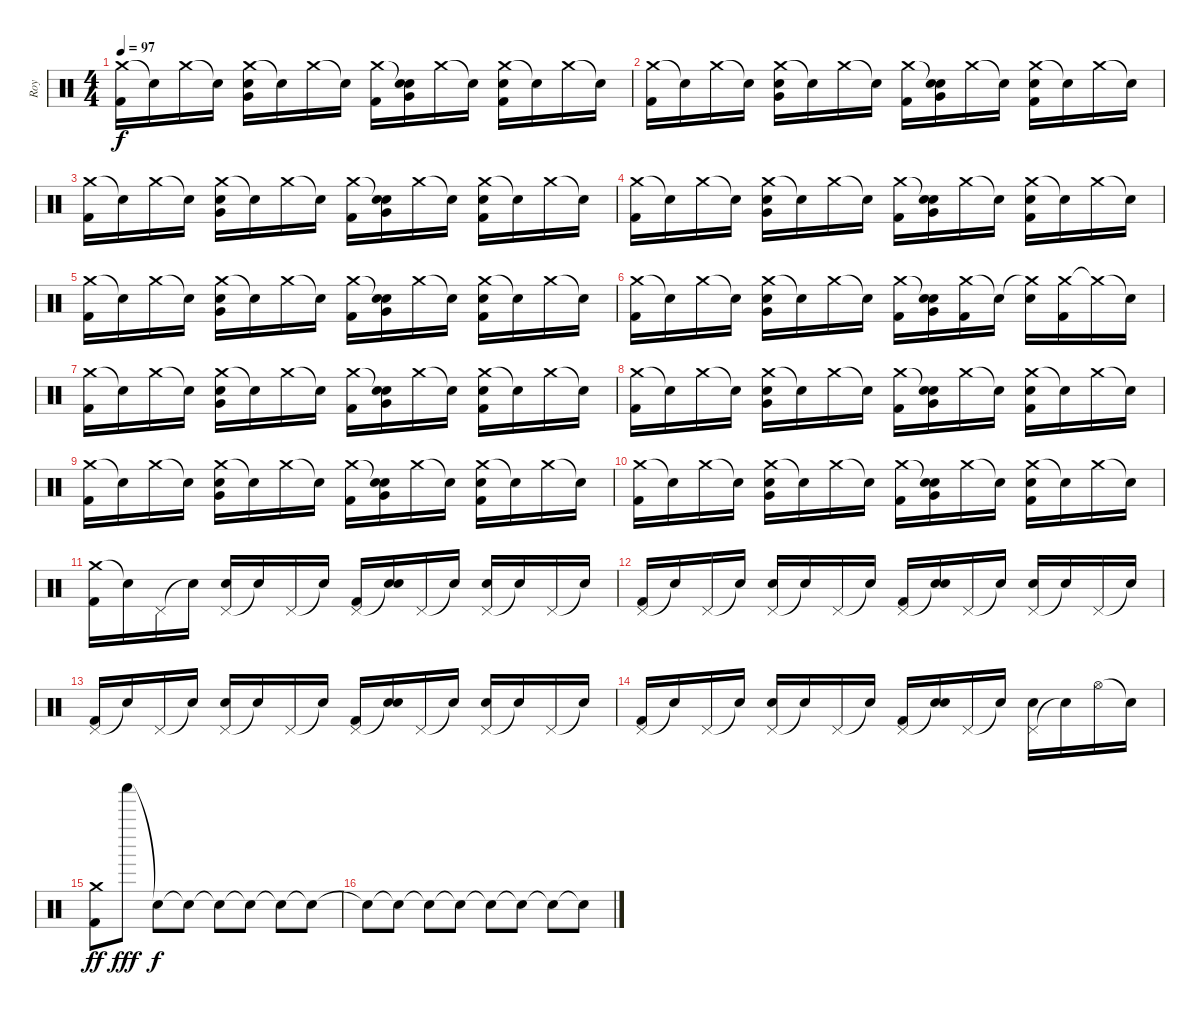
\track ("Roy" "Roy") {instrument percussion}
\staff {score}
\articulation defaults
\ts (4 4)
\tempo 97
\clef neutral
\ks c
("Crash medium (hit)" "Kick (hit) 2").16{dy f} "Snare (hit)"{t}.16 "Crash medium (hit)".16 "Snare (hit)"{t}.16 ("Crash medium (hit)" "Electric Snare (hit)" "Very Low Tom (hit)").16 "Snare (hit)"{t}.16 "Crash medium (hit)".16 "Snare (hit)"{t}.16 ("Crash medium (hit)" "Kick (hit) 2").16 ("Snare (hit)"{t} "Electric Snare (hit)" "Very Low Tom (hit)").16 "Crash medium (hit)".16 "Snare (hit)"{t}.16 ("Crash medium (hit)" "Electric Snare (hit)" "Kick (hit) 2").16 "Snare (hit)"{t}.16 "Crash medium (hit)".16 "Snare (hit)"{t}.16 |
("Crash medium (hit)" "Kick (hit) 2").16 "Snare (hit)"{t}.16 "Crash medium (hit)".16 "Snare (hit)"{t}.16 ("Crash medium (hit)" "Electric Snare (hit)" "Very Low Tom (hit)").16 "Snare (hit)"{t}.16 "Crash medium (hit)".16 "Snare (hit)"{t}.16 ("Crash medium (hit)" "Kick (hit) 2").16 ("Snare (hit)"{t} "Electric Snare (hit)" "Very Low Tom (hit)").16 "Crash medium (hit)".16 "Snare (hit)"{t}.16 ("Crash medium (hit)" "Electric Snare (hit)" "Kick (hit) 2").16 "Snare (hit)"{t}.16 "Crash medium (hit)".16 "Snare (hit)"{t}.16 |
("Crash medium (hit)" "Kick (hit) 2").16 "Snare (hit)"{t}.16 "Crash medium (hit)".16 "Snare (hit)"{t}.16 ("Crash medium (hit)" "Electric Snare (hit)" "Very Low Tom (hit)").16 "Snare (hit)"{t}.16 "Crash medium (hit)".16 "Snare (hit)"{t}.16 ("Crash medium (hit)" "Kick (hit) 2").16 ("Snare (hit)"{t} "Electric Snare (hit)" "Very Low Tom (hit)").16 "Crash medium (hit)".16 "Snare (hit)"{t}.16 ("Crash medium (hit)" "Electric Snare (hit)" "Kick (hit) 2").16 "Snare (hit)"{t}.16 "Crash medium (hit)".16 "Snare (hit)"{t}.16 |
("Crash medium (hit)" "Kick (hit) 2").16 "Snare (hit)"{t}.16 "Crash medium (hit)".16 "Snare (hit)"{t}.16 ("Crash medium (hit)" "Electric Snare (hit)" "Very Low Tom (hit)").16 "Snare (hit)"{t}.16 "Crash medium (hit)".16 "Snare (hit)"{t}.16 ("Crash medium (hit)" "Kick (hit) 2").16 ("Snare (hit)"{t} "Electric Snare (hit)" "Very Low Tom (hit)").16 "Crash medium (hit)".16 "Snare (hit)"{t}.16 ("Crash medium (hit)" "Electric Snare (hit)" "Kick (hit) 2").16 "Snare (hit)"{t}.16 "Crash medium (hit)".16 "Snare (hit)"{t}.16 |
("Crash medium (hit)" "Kick (hit) 2").16 "Snare (hit)"{t}.16 "Crash medium (hit)".16 "Snare (hit)"{t}.16 ("Crash medium (hit)" "Electric Snare (hit)" "Very Low Tom (hit)").16 "Snare (hit)"{t}.16 "Crash medium (hit)".16 "Snare (hit)"{t}.16 ("Crash medium (hit)" "Kick (hit) 2").16 ("Snare (hit)"{t} "Electric Snare (hit)" "Very Low Tom (hit)").16 "Crash medium (hit)".16 "Snare (hit)"{t}.16 ("Crash medium (hit)" "Electric Snare (hit)" "Kick (hit) 2").16 "Snare (hit)"{t}.16 "Crash medium (hit)".16 "Snare (hit)"{t}.16 |
("Crash medium (hit)" "Kick (hit) 2").16 "Snare (hit)"{t}.16 "Crash medium (hit)".16 "Snare (hit)"{t}.16 ("Crash medium (hit)" "Electric Snare (hit)" "Very Low Tom (hit)").16 "Snare (hit)"{t}.16 "Crash medium (hit)".16 "Snare (hit)"{t}.16 ("Crash medium (hit)" "Kick (hit) 2").16 ("Snare (hit)"{t} "Electric Snare (hit)" "Very Low Tom (hit)").16 ("Crash medium (hit)" "Kick (hit) 2").16 "Snare (hit)"{t}.16 ("Crash medium (hit)"{t} "Electric Snare (hit)").16 ("Crash medium (hit)" "Kick (hit) 2").16 "Crash medium (hit)"{t}.16 "Snare (hit)"{t}.16 |
("Crash medium (hit)" "Kick (hit) 2").16 "Snare (hit)"{t}.16 "Crash medium (hit)".16 "Snare (hit)"{t}.16 ("Crash medium (hit)" "Electric Snare (hit)" "Very Low Tom (hit)").16 "Snare (hit)"{t}.16 "Crash medium (hit)".16 "Snare (hit)"{t}.16 ("Crash medium (hit)" "Kick (hit) 2").16 ("Snare (hit)"{t} "Electric Snare (hit)" "Very Low Tom (hit)").16 "Crash medium (hit)".16 "Snare (hit)"{t}.16 ("Crash medium (hit)" "Electric Snare (hit)" "Kick (hit) 2").16 "Snare (hit)"{t}.16 "Crash medium (hit)".16 "Snare (hit)"{t}.16 |
("Crash medium (hit)" "Kick (hit) 2").16 "Snare (hit)"{t}.16 "Crash medium (hit)".16 "Snare (hit)"{t}.16 ("Crash medium (hit)" "Electric Snare (hit)" "Very Low Tom (hit)").16 "Snare (hit)"{t}.16 "Crash medium (hit)".16 "Snare (hit)"{t}.16 ("Crash medium (hit)" "Kick (hit) 2").16 ("Snare (hit)"{t} "Electric Snare (hit)" "Very Low Tom (hit)").16 "Crash medium (hit)".16 "Snare (hit)"{t}.16 ("Crash medium (hit)" "Electric Snare (hit)" "Kick (hit) 2").16 "Snare (hit)"{t}.16 "Crash medium (hit)".16 "Snare (hit)"{t}.16 |
("Crash medium (hit)" "Kick (hit) 2").16 "Snare (hit)"{t}.16 "Crash medium (hit)".16 "Snare (hit)"{t}.16 ("Crash medium (hit)" "Electric Snare (hit)" "Very Low Tom (hit)").16 "Snare (hit)"{t}.16 "Crash medium (hit)".16 "Snare (hit)"{t}.16 ("Crash medium (hit)" "Kick (hit) 2").16 ("Snare (hit)"{t} "Electric Snare (hit)" "Very Low Tom (hit)").16 "Crash medium (hit)".16 "Snare (hit)"{t}.16 ("Crash medium (hit)" "Electric Snare (hit)" "Kick (hit) 2").16 "Snare (hit)"{t}.16 "Crash medium (hit)".16 "Snare (hit)"{t}.16 |
("Crash medium (hit)" "Kick (hit) 2").16 "Snare (hit)"{t}.16 "Crash medium (hit)".16 "Snare (hit)"{t}.16 ("Crash medium (hit)" "Electric Snare (hit)" "Very Low Tom (hit)").16 "Snare (hit)"{t}.16 "Crash medium (hit)".16 "Snare (hit)"{t}.16 ("Crash medium (hit)" "Kick (hit) 2").16 ("Snare (hit)"{t} "Electric Snare (hit)" "Very Low Tom (hit)").16 "Crash medium (hit)".16 "Snare (hit)"{t}.16 ("Crash medium (hit)" "Electric Snare (hit)" "Kick (hit) 2").16 "Snare (hit)"{t}.16 "Crash medium (hit)".16 "Snare (hit)"{t}.16 |
("Crash medium (hit)" "Kick (hit) 2").16 "Snare (hit)"{t}.16 "Pedal Hi-Hat (hit)".16 "Snare (hit)"{t}.16 ("Pedal Hi-Hat (hit)" "Electric Snare (hit)").16 "Snare (hit)"{t}.16 "Pedal Hi-Hat (hit)".16 "Snare (hit)"{t}.16 ("Pedal Hi-Hat (hit)" "Kick (hit) 2").16 ("Snare (hit)"{t} "Electric Snare (hit)").16 "Pedal Hi-Hat (hit)".16 "Snare (hit)"{t}.16 ("Pedal Hi-Hat (hit)" "Electric Snare (hit)").16 "Snare (hit)"{t}.16 "Pedal Hi-Hat (hit)".16 "Snare (hit)"{t}.16 |
("Pedal Hi-Hat (hit)" "Kick (hit) 2").16 "Snare (hit)"{t}.16 "Pedal Hi-Hat (hit)".16 "Snare (hit)"{t}.16 ("Pedal Hi-Hat (hit)" "Electric Snare (hit)").16 "Snare (hit)"{t}.16 "Pedal Hi-Hat (hit)".16 "Snare (hit)"{t}.16 ("Pedal Hi-Hat (hit)" "Kick (hit) 2").16 ("Snare (hit)"{t} "Electric Snare (hit)").16 "Pedal Hi-Hat (hit)".16 "Snare (hit)"{t}.16 ("Pedal Hi-Hat (hit)" "Electric Snare (hit)").16 "Snare (hit)"{t}.16 "Pedal Hi-Hat (hit)".16 "Snare (hit)"{t}.16 |
("Pedal Hi-Hat (hit)" "Kick (hit) 2").16 "Snare (hit)"{t}.16 "Pedal Hi-Hat (hit)".16 "Snare (hit)"{t}.16 ("Pedal Hi-Hat (hit)" "Electric Snare (hit)").16 "Snare (hit)"{t}.16 "Pedal Hi-Hat (hit)".16 "Snare (hit)"{t}.16 ("Pedal Hi-Hat (hit)" "Kick (hit) 2").16 ("Snare (hit)"{t} "Electric Snare (hit)").16 "Pedal Hi-Hat (hit)".16 "Snare (hit)"{t}.16 ("Pedal Hi-Hat (hit)" "Electric Snare (hit)").16 "Snare (hit)"{t}.16 "Pedal Hi-Hat (hit)".16 "Snare (hit)"{t}.16 |
("Pedal Hi-Hat (hit)" "Kick (hit) 2").16 "Snare (hit)"{t}.16 "Pedal Hi-Hat (hit)".16 "Snare (hit)"{t}.16 ("Pedal Hi-Hat (hit)" "Electric Snare (hit)").16 "Snare (hit)"{t}.16 "Pedal Hi-Hat (hit)".16 "Snare (hit)"{t}.16 ("Pedal Hi-Hat (hit)" "Kick (hit) 2").16 ("Snare (hit)"{t} "Electric Snare (hit)").16 "Pedal Hi-Hat (hit)".16 "Snare (hit)"{t}.16 ("Pedal Hi-Hat (hit)" "Electric Snare (hit)").16 "Snare (hit)"{t}.16 "Hi-Hat (open)".16 "Snare (hit)"{t}.16 |
("Crash medium (hit)" "Kick (hit) 2").8{dy ff} "Shaker (hit)".8{dy fff} "Snare (hit)"{t}.8{dy f} "Snare (hit)"{t}.8 "Snare (hit)"{t}.8 "Snare (hit)"{t}.8 "Snare (hit)"{t}.8 "Snare (hit)"{t}.8 |
"Snare (hit)"{t}.8 "Snare (hit)"{t}.8 "Snare (hit)"{t}.8 "Snare (hit)"{t}.8 "Snare (hit)"{t}.8 "Snare (hit)"{t}.8 "Snare (hit)"{t}.8 "Snare (hit)"{t}.8
